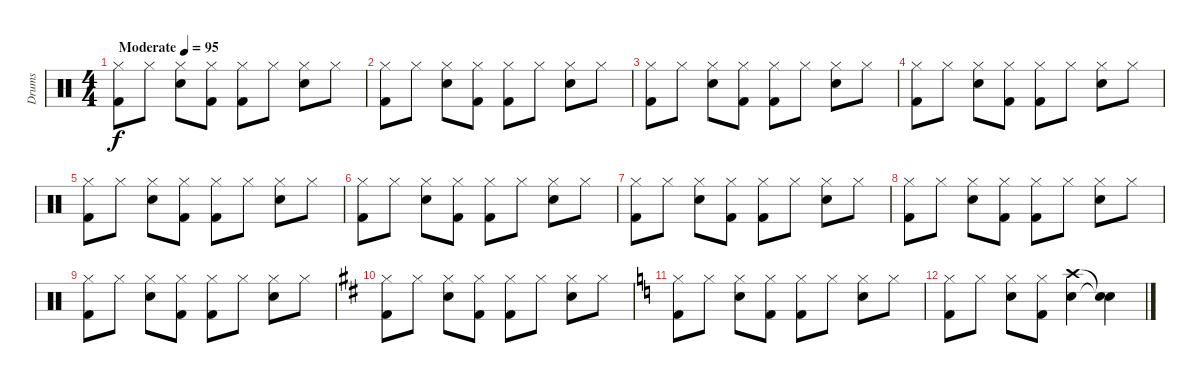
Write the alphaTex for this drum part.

\track ("Drums" "Drums") {instrument percussion}
\staff {score}
\articulation defaults
\ts (4 4)
\tempo (95 "Moderate")
\clef neutral
\ks c
("Hi-Hat (closed)" "Kick (hit) 2").8{dy f} "Hi-Hat (closed)".8 ("Hi-Hat (closed)" "Electric Snare (hit)").8 ("Hi-Hat (closed)" "Kick (hit) 2").8 ("Hi-Hat (closed)" "Kick (hit) 2").8 "Hi-Hat (closed)".8 ("Hi-Hat (closed)" "Electric Snare (hit)").8 "Hi-Hat (closed)".8 |
("Hi-Hat (closed)" "Kick (hit) 2").8 "Hi-Hat (closed)".8 ("Hi-Hat (closed)" "Electric Snare (hit)").8 ("Hi-Hat (closed)" "Kick (hit) 2").8 ("Hi-Hat (closed)" "Kick (hit) 2").8 "Hi-Hat (closed)".8 ("Hi-Hat (closed)" "Electric Snare (hit)").8 "Hi-Hat (closed)".8 |
("Hi-Hat (closed)" "Kick (hit) 2").8 "Hi-Hat (closed)".8 ("Hi-Hat (closed)" "Electric Snare (hit)").8 ("Hi-Hat (closed)" "Kick (hit) 2").8 ("Hi-Hat (closed)" "Kick (hit) 2").8 "Hi-Hat (closed)".8 ("Hi-Hat (closed)" "Electric Snare (hit)").8 "Hi-Hat (closed)".8 |
("Hi-Hat (closed)" "Kick (hit) 2").8 "Hi-Hat (closed)".8 ("Hi-Hat (closed)" "Electric Snare (hit)").8 ("Hi-Hat (closed)" "Kick (hit) 2").8 ("Hi-Hat (closed)" "Kick (hit) 2").8 "Hi-Hat (closed)".8 ("Hi-Hat (closed)" "Electric Snare (hit)").8 "Hi-Hat (closed)".8 |
("Hi-Hat (closed)" "Kick (hit) 2").8 "Hi-Hat (closed)".8 ("Hi-Hat (closed)" "Electric Snare (hit)").8 ("Hi-Hat (closed)" "Kick (hit) 2").8 ("Hi-Hat (closed)" "Kick (hit) 2").8 "Hi-Hat (closed)".8 ("Hi-Hat (closed)" "Electric Snare (hit)").8 "Hi-Hat (closed)".8 |
("Hi-Hat (closed)" "Kick (hit) 2").8 "Hi-Hat (closed)".8 ("Hi-Hat (closed)" "Electric Snare (hit)").8 ("Hi-Hat (closed)" "Kick (hit) 2").8 ("Hi-Hat (closed)" "Kick (hit) 2").8 "Hi-Hat (closed)".8 ("Hi-Hat (closed)" "Electric Snare (hit)").8 "Hi-Hat (closed)".8 |
("Hi-Hat (closed)" "Kick (hit) 2").8 "Hi-Hat (closed)".8 ("Hi-Hat (closed)" "Electric Snare (hit)").8 ("Hi-Hat (closed)" "Kick (hit) 2").8 ("Hi-Hat (closed)" "Kick (hit) 2").8 "Hi-Hat (closed)".8 ("Hi-Hat (closed)" "Electric Snare (hit)").8 "Hi-Hat (closed)".8 |
("Hi-Hat (closed)" "Kick (hit) 2").8 "Hi-Hat (closed)".8 ("Hi-Hat (closed)" "Electric Snare (hit)").8 ("Hi-Hat (closed)" "Kick (hit) 2").8 ("Hi-Hat (closed)" "Kick (hit) 2").8 "Hi-Hat (closed)".8 ("Hi-Hat (closed)" "Electric Snare (hit)").8 "Hi-Hat (closed)".8 |
("Hi-Hat (closed)" "Kick (hit) 2").8 "Hi-Hat (closed)".8 ("Hi-Hat (closed)" "Electric Snare (hit)").8 ("Hi-Hat (closed)" "Kick (hit) 2").8 ("Hi-Hat (closed)" "Kick (hit) 2").8 "Hi-Hat (closed)".8 ("Hi-Hat (closed)" "Electric Snare (hit)").8 "Hi-Hat (closed)".8 |
\ks d
("Hi-Hat (closed)" "Kick (hit) 2").8 "Hi-Hat (closed)".8 ("Hi-Hat (closed)" "Electric Snare (hit)").8 ("Hi-Hat (closed)" "Kick (hit) 2").8 ("Hi-Hat (closed)" "Kick (hit) 2").8 "Hi-Hat (closed)".8 ("Hi-Hat (closed)" "Electric Snare (hit)").8 "Hi-Hat (closed)".8 |
\ks c
("Hi-Hat (closed)" "Kick (hit) 2").8 "Hi-Hat (closed)".8 ("Hi-Hat (closed)" "Electric Snare (hit)").8 ("Hi-Hat (closed)" "Kick (hit) 2").8 ("Hi-Hat (closed)" "Kick (hit) 2").8 "Hi-Hat (closed)".8 ("Hi-Hat (closed)" "Electric Snare (hit)").8 "Hi-Hat (closed)".8 |
("Hi-Hat (closed)" "Kick (hit) 2").8 "Hi-Hat (closed)".8 ("Hi-Hat (closed)" "Electric Snare (hit)").8 ("Hi-Hat (closed)" "Kick (hit) 2").8 ("Crash high (hit)" "Electric Snare (hit)").4 ("Snare (hit)"{t} "Snare (hit)"{t}).4
